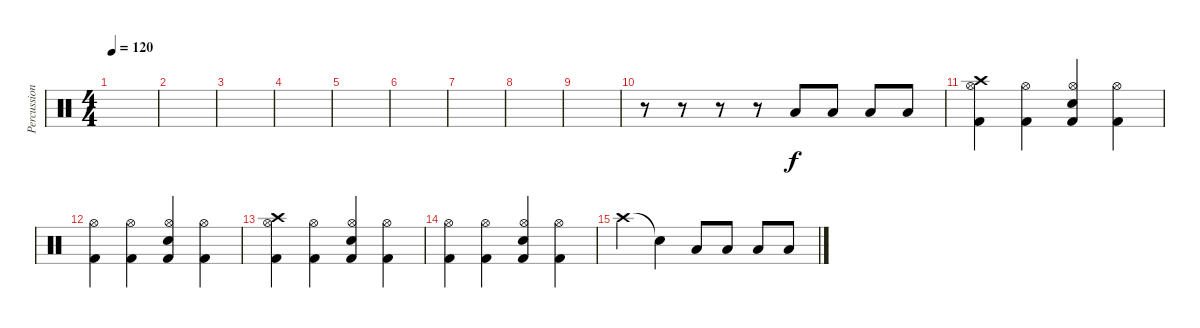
\track ("Percussion" "Percussion") {instrument percussion}
\staff {score}
\articulation defaults
\ts (4 4)
\tempo 120
\clef neutral
\ks c
|
|
|
|
|
|
|
|
|
r.8 r.8 r.8 r.8 "Low Floor Tom (hit)".8 "Low Floor Tom (hit)".8 "Low Floor Tom (hit)".8 "Low Floor Tom (hit)".8 |
("Crash high (hit)" "Kick (hit) 2" "Hi-Hat (open)").4 ("Kick (hit) 2" "Hi-Hat (open)").4 ("Snare (hit) 2" "Kick (hit) 2" "Hi-Hat (open)").4 ("Kick (hit) 2" "Hi-Hat (open)").4 |
("Kick (hit) 2" "Hi-Hat (open)").4 ("Kick (hit) 2" "Hi-Hat (open)").4 ("Snare (hit) 2" "Kick (hit) 2" "Hi-Hat (open)").4 ("Kick (hit) 2" "Hi-Hat (open)").4 |
("Crash high (hit)" "Kick (hit) 2" "Hi-Hat (open)").4 ("Kick (hit) 2" "Hi-Hat (open)").4 ("Snare (hit) 2" "Kick (hit) 2" "Hi-Hat (open)").4 ("Kick (hit) 2" "Hi-Hat (open)").4 |
("Kick (hit) 2" "Hi-Hat (open)").4 ("Kick (hit) 2" "Hi-Hat (open)").4 ("Snare (hit) 2" "Kick (hit) 2" "Hi-Hat (open)").4 ("Kick (hit) 2" "Hi-Hat (open)").4 |
"Crash high (hit)".4 "Snare (hit)"{t}.4 "Low Floor Tom (hit)".8 "Low Floor Tom (hit)".8 "Low Floor Tom (hit)".8 "Low Floor Tom (hit)".8
